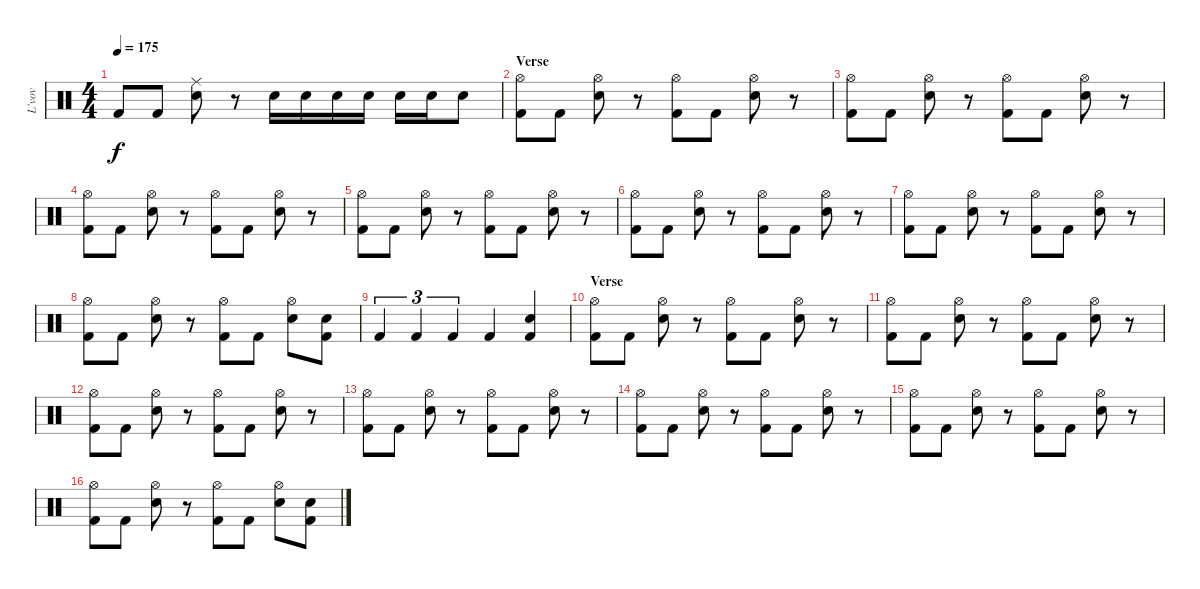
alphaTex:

\track ("L'vov" "L'vov") {instrument percussion}
\staff {score}
\articulation defaults
\ts (4 4)
\tempo 175
\clef neutral
\ks c "Kick (hit) 2".8{dy f} "Kick (hit) 2".8
("Snare (hit) 2" "Ride (middle)").8 r.8 "Snare (hit) 2".16 "Snare (hit) 2".16 "Snare (hit) 2".16 "Snare (hit) 2".16 "Snare (hit) 2".16 "Snare (hit) 2".16 "Snare (hit) 2".8 |
\section ("" "Verse")
("Kick (hit) 2" "Hi-Hat (open)").8 "Kick (hit) 2".8 ("Snare (hit) 2" "Hi-Hat (open)").8 r.8 ("Kick (hit) 2" "Hi-Hat (open)").8 "Kick (hit) 2".8 ("Snare (hit) 2" "Hi-Hat (open)").8 r.8 |
("Kick (hit) 2" "Hi-Hat (open)").8 "Kick (hit) 2".8 ("Snare (hit) 2" "Hi-Hat (open)").8 r.8 ("Kick (hit) 2" "Hi-Hat (open)").8 "Kick (hit) 2".8 ("Snare (hit) 2" "Hi-Hat (open)").8 r.8 |
("Kick (hit) 2" "Hi-Hat (open)").8 "Kick (hit) 2".8 ("Snare (hit) 2" "Hi-Hat (open)").8 r.8 ("Kick (hit) 2" "Hi-Hat (open)").8 "Kick (hit) 2".8 ("Snare (hit) 2" "Hi-Hat (open)").8 r.8 |
("Kick (hit) 2" "Hi-Hat (open)").8 "Kick (hit) 2".8 ("Snare (hit) 2" "Hi-Hat (open)").8 r.8 ("Kick (hit) 2" "Hi-Hat (open)").8 "Kick (hit) 2".8 ("Snare (hit) 2" "Hi-Hat (open)").8 r.8 |
("Kick (hit) 2" "Hi-Hat (open)").8 "Kick (hit) 2".8 ("Snare (hit) 2" "Hi-Hat (open)").8 r.8 ("Kick (hit) 2" "Hi-Hat (open)").8 "Kick (hit) 2".8 ("Snare (hit) 2" "Hi-Hat (open)").8 r.8 |
("Kick (hit) 2" "Hi-Hat (open)").8 "Kick (hit) 2".8 ("Snare (hit) 2" "Hi-Hat (open)").8 r.8 ("Kick (hit) 2" "Hi-Hat (open)").8 "Kick (hit) 2".8 ("Snare (hit) 2" "Hi-Hat (open)").8 r.8 |
("Kick (hit) 2" "Hi-Hat (open)").8 "Kick (hit) 2".8 ("Snare (hit) 2" "Hi-Hat (open)").8 r.8 ("Kick (hit) 2" "Hi-Hat (open)").8 "Kick (hit) 2".8 ("Snare (hit) 2" "Hi-Hat (open)").8 ("Snare (hit) 2" "Kick (hit) 2").8 |
"Kick (hit) 2".4{tu (3 2)} "Kick (hit) 2".4{tu (3 2)} "Kick (hit) 2".4{tu (3 2)} "Kick (hit) 2".4 ("Snare (hit) 2" "Kick (hit) 2").4 |
\section ("" "Verse")
("Kick (hit) 2" "Hi-Hat (open)").8 "Kick (hit) 2".8 ("Snare (hit) 2" "Hi-Hat (open)").8 r.8 ("Kick (hit) 2" "Hi-Hat (open)").8 "Kick (hit) 2".8 ("Snare (hit) 2" "Hi-Hat (open)").8 r.8 |
("Kick (hit) 2" "Hi-Hat (open)").8 "Kick (hit) 2".8 ("Snare (hit) 2" "Hi-Hat (open)").8 r.8 ("Kick (hit) 2" "Hi-Hat (open)").8 "Kick (hit) 2".8 ("Snare (hit) 2" "Hi-Hat (open)").8 r.8 |
("Kick (hit) 2" "Hi-Hat (open)").8 "Kick (hit) 2".8 ("Snare (hit) 2" "Hi-Hat (open)").8 r.8 ("Kick (hit) 2" "Hi-Hat (open)").8 "Kick (hit) 2".8 ("Snare (hit) 2" "Hi-Hat (open)").8 r.8 |
("Kick (hit) 2" "Hi-Hat (open)").8 "Kick (hit) 2".8 ("Snare (hit) 2" "Hi-Hat (open)").8 r.8 ("Kick (hit) 2" "Hi-Hat (open)").8 "Kick (hit) 2".8 ("Snare (hit) 2" "Hi-Hat (open)").8 r.8 |
("Kick (hit) 2" "Hi-Hat (open)").8 "Kick (hit) 2".8 ("Snare (hit) 2" "Hi-Hat (open)").8 r.8 ("Kick (hit) 2" "Hi-Hat (open)").8 "Kick (hit) 2".8 ("Snare (hit) 2" "Hi-Hat (open)").8 r.8 |
("Kick (hit) 2" "Hi-Hat (open)").8 "Kick (hit) 2".8 ("Snare (hit) 2" "Hi-Hat (open)").8 r.8 ("Kick (hit) 2" "Hi-Hat (open)").8 "Kick (hit) 2".8 ("Snare (hit) 2" "Hi-Hat (open)").8 r.8 |
("Kick (hit) 2" "Hi-Hat (open)").8 "Kick (hit) 2".8 ("Snare (hit) 2" "Hi-Hat (open)").8 r.8 ("Kick (hit) 2" "Hi-Hat (open)").8 "Kick (hit) 2".8 ("Snare (hit) 2" "Hi-Hat (open)").8 ("Snare (hit) 2" "Kick (hit) 2").8
